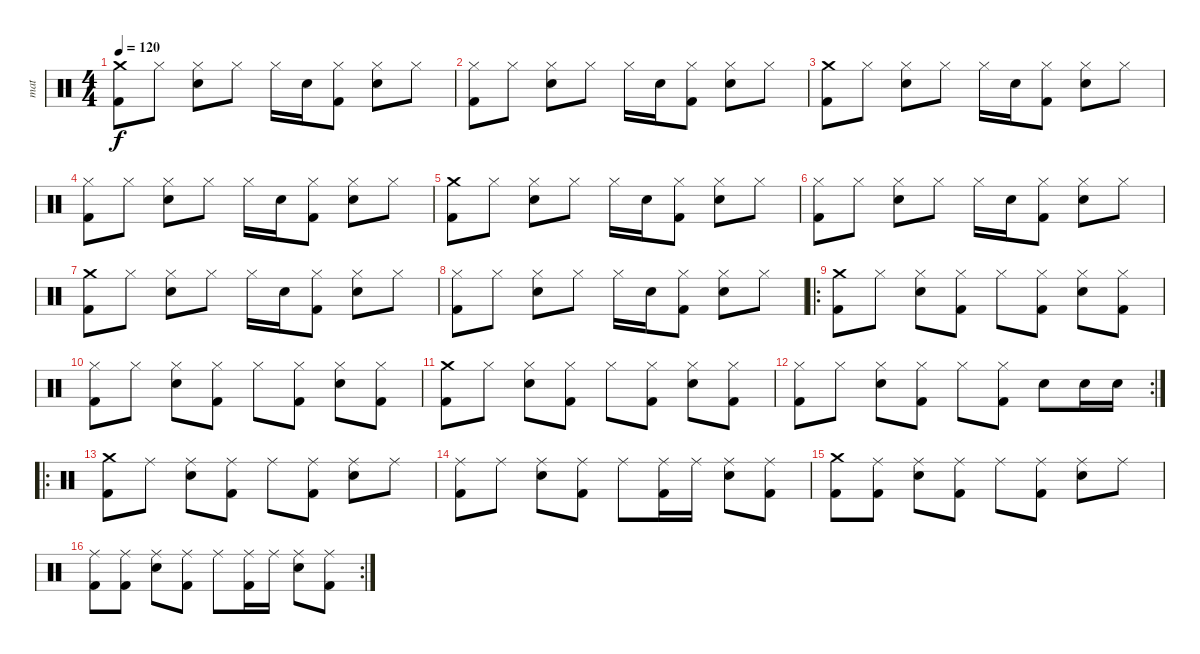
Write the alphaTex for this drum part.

\track ("mat" "mat") {instrument percussion}
\staff {score}
\articulation defaults
\ts (4 4)
\tempo 120
\clef neutral
\ks c
("Kick (hit) 2" "Crash medium (hit)").8{dy f} "Hi-Hat (closed)".8 ("Snare (hit) 2" "Hi-Hat (closed)").8 "Hi-Hat (closed)".8 "Hi-Hat (closed)".16 "Snare (hit) 2".16 ("Kick (hit) 2" "Hi-Hat (closed)").8 ("Snare (hit) 2" "Hi-Hat (closed)").8 "Hi-Hat (closed)".8 |
("Kick (hit) 2" "Hi-Hat (closed)").8 "Hi-Hat (closed)".8 ("Snare (hit) 2" "Hi-Hat (closed)").8 "Hi-Hat (closed)".8 "Hi-Hat (closed)".16 "Snare (hit) 2".16 ("Kick (hit) 2" "Hi-Hat (closed)").8 ("Snare (hit) 2" "Hi-Hat (closed)").8 "Hi-Hat (closed)".8 |
("Kick (hit) 2" "Crash medium (hit)").8 "Hi-Hat (closed)".8 ("Snare (hit) 2" "Hi-Hat (closed)").8 "Hi-Hat (closed)".8 "Hi-Hat (closed)".16 "Snare (hit) 2".16 ("Kick (hit) 2" "Hi-Hat (closed)").8 ("Snare (hit) 2" "Hi-Hat (closed)").8 "Hi-Hat (closed)".8 |
("Kick (hit) 2" "Hi-Hat (closed)").8 "Hi-Hat (closed)".8 ("Snare (hit) 2" "Hi-Hat (closed)").8 "Hi-Hat (closed)".8 "Hi-Hat (closed)".16 "Snare (hit) 2".16 ("Kick (hit) 2" "Hi-Hat (closed)").8 ("Snare (hit) 2" "Hi-Hat (closed)").8 "Hi-Hat (closed)".8 |
("Kick (hit) 2" "Crash medium (hit)").8 "Hi-Hat (closed)".8 ("Snare (hit) 2" "Hi-Hat (closed)").8 "Hi-Hat (closed)".8 "Hi-Hat (closed)".16 "Snare (hit) 2".16 ("Kick (hit) 2" "Hi-Hat (closed)").8 ("Snare (hit) 2" "Hi-Hat (closed)").8 "Hi-Hat (closed)".8 |
("Kick (hit) 2" "Hi-Hat (closed)").8 "Hi-Hat (closed)".8 ("Snare (hit) 2" "Hi-Hat (closed)").8 "Hi-Hat (closed)".8 "Hi-Hat (closed)".16 "Snare (hit) 2".16 ("Kick (hit) 2" "Hi-Hat (closed)").8 ("Snare (hit) 2" "Hi-Hat (closed)").8 "Hi-Hat (closed)".8 |
("Kick (hit) 2" "Crash medium (hit)").8 "Hi-Hat (closed)".8 ("Snare (hit) 2" "Hi-Hat (closed)").8 "Hi-Hat (closed)".8 "Hi-Hat (closed)".16 "Snare (hit) 2".16 ("Kick (hit) 2" "Hi-Hat (closed)").8 ("Snare (hit) 2" "Hi-Hat (closed)").8 "Hi-Hat (closed)".8 |
("Kick (hit) 2" "Hi-Hat (closed)").8 "Hi-Hat (closed)".8 ("Snare (hit) 2" "Hi-Hat (closed)").8 "Hi-Hat (closed)".8 "Hi-Hat (closed)".16 "Snare (hit) 2".16 ("Kick (hit) 2" "Hi-Hat (closed)").8 ("Snare (hit) 2" "Hi-Hat (closed)").8 "Hi-Hat (closed)".8 |
\ro
("Kick (hit) 2" "Crash medium (hit)").8 "Hi-Hat (closed)".8 ("Snare (hit) 2" "Hi-Hat (closed)").8 ("Kick (hit) 2" "Hi-Hat (closed)").8 "Hi-Hat (closed)".8 ("Kick (hit) 2" "Hi-Hat (closed)").8 ("Snare (hit) 2" "Hi-Hat (closed)").8 ("Kick (hit) 2" "Hi-Hat (closed)").8 |
("Kick (hit) 2" "Hi-Hat (closed)").8 "Hi-Hat (closed)".8 ("Snare (hit) 2" "Hi-Hat (closed)").8 ("Kick (hit) 2" "Hi-Hat (closed)").8 "Hi-Hat (closed)".8 ("Kick (hit) 2" "Hi-Hat (closed)").8 ("Snare (hit) 2" "Hi-Hat (closed)").8 ("Kick (hit) 2" "Hi-Hat (closed)").8 |
("Kick (hit) 2" "Crash medium (hit)").8 "Hi-Hat (closed)".8 ("Snare (hit) 2" "Hi-Hat (closed)").8 ("Kick (hit) 2" "Hi-Hat (closed)").8 "Hi-Hat (closed)".8 ("Kick (hit) 2" "Hi-Hat (closed)").8 ("Snare (hit) 2" "Hi-Hat (closed)").8 ("Kick (hit) 2" "Hi-Hat (closed)").8 |
\rc 2
("Kick (hit) 2" "Hi-Hat (closed)").8 "Hi-Hat (closed)".8 ("Snare (hit) 2" "Hi-Hat (closed)").8 ("Kick (hit) 2" "Hi-Hat (closed)").8 "Hi-Hat (closed)".8 ("Kick (hit) 2" "Hi-Hat (closed)").8 "Snare (hit) 2".8 "Snare (hit) 2".16 "Snare (hit) 2".16 |
\ro
("Kick (hit) 2" "Crash medium (hit)").8 "Ride (middle)".8 ("Snare (hit) 2" "Ride (middle)").8 ("Kick (hit) 2" "Ride (middle)").8 "Ride (middle)".8 ("Kick (hit) 2" "Ride (middle)").8 ("Snare (hit) 2" "Ride (middle)").8 "Ride (middle)".8 |
("Kick (hit) 2" "Ride (middle)").8 "Ride (middle)".8 ("Snare (hit) 2" "Ride (middle)").8 ("Kick (hit) 2" "Ride (middle)").8 "Ride (middle)".8 ("Kick (hit) 2" "Ride (middle)").16 "Ride (middle)".16 ("Snare (hit) 2" "Ride (middle)").8 ("Kick (hit) 2" "Ride (middle)").8 |
("Kick (hit) 2" "Crash medium (hit)").8 ("Kick (hit) 2" "Ride (middle)").8 ("Snare (hit) 2" "Ride (middle)").8 ("Kick (hit) 2" "Ride (middle)").8 "Ride (middle)".8 ("Kick (hit) 2" "Ride (middle)").8 ("Snare (hit) 2" "Ride (middle)").8 "Ride (middle)".8 |
\rc 2
("Kick (hit) 2" "Ride (middle)").8 ("Kick (hit) 2" "Ride (middle)").8 ("Snare (hit) 2" "Ride (middle)").8 ("Kick (hit) 2" "Ride (middle)").8 "Ride (middle)".8 ("Kick (hit) 2" "Ride (middle)").16 "Ride (middle)".16 ("Snare (hit) 2" "Ride (middle)").8 ("Kick (hit) 2" "Ride (middle)").8
